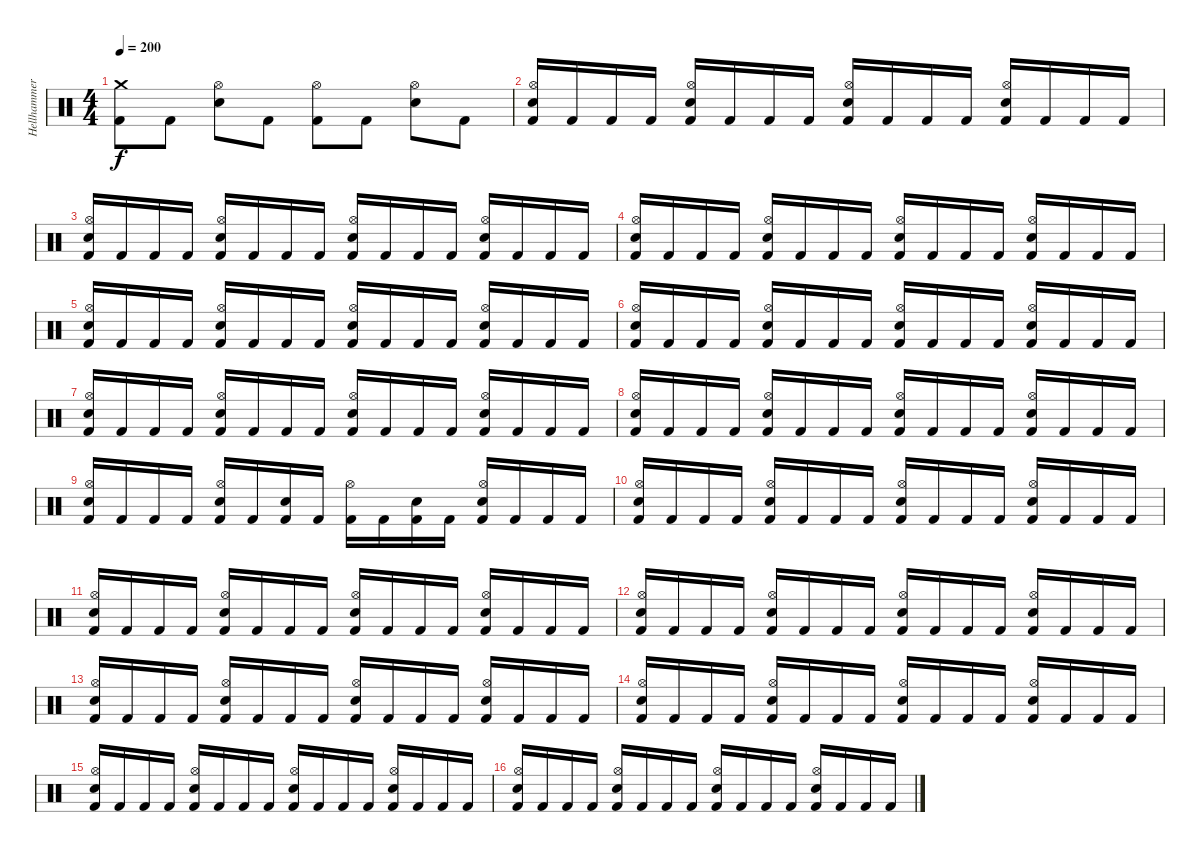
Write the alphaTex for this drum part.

\track ("Hellhammer" "Hellhammer") {instrument percussion}
\staff {score}
\articulation defaults
\ts (4 4)
\tempo 200
\clef neutral
\ks c
("Crash medium (hit)" "Kick (hit) 2").8{dy f} "Kick (hit) 2".8 ("Hi-Hat (open)" "Electric Snare (hit)").8 "Kick (hit) 2".8 ("Hi-Hat (open)" "Kick (hit) 2").8 "Kick (hit) 2".8 ("Hi-Hat (open)" "Electric Snare (hit)").8 "Kick (hit) 2".8 |
("Hi-Hat (open)" "Electric Snare (hit)" "Kick (hit) 2").16 "Kick (hit) 2".16 "Kick (hit) 2".16 "Kick (hit) 2".16 ("Hi-Hat (open)" "Electric Snare (hit)" "Kick (hit) 2").16 "Kick (hit) 2".16 "Kick (hit) 2".16 "Kick (hit) 2".16 ("Hi-Hat (open)" "Electric Snare (hit)" "Kick (hit) 2").16 "Kick (hit) 2".16 "Kick (hit) 2".16 "Kick (hit) 2".16 ("Hi-Hat (open)" "Electric Snare (hit)" "Kick (hit) 2").16 "Kick (hit) 2".16 "Kick (hit) 2".16 "Kick (hit) 2".16 |
("Hi-Hat (open)" "Electric Snare (hit)" "Kick (hit) 2").16 "Kick (hit) 2".16 "Kick (hit) 2".16 "Kick (hit) 2".16 ("Hi-Hat (open)" "Electric Snare (hit)" "Kick (hit) 2").16 "Kick (hit) 2".16 "Kick (hit) 2".16 "Kick (hit) 2".16 ("Hi-Hat (open)" "Electric Snare (hit)" "Kick (hit) 2").16 "Kick (hit) 2".16 "Kick (hit) 2".16 "Kick (hit) 2".16 ("Hi-Hat (open)" "Electric Snare (hit)" "Kick (hit) 2").16 "Kick (hit) 2".16 "Kick (hit) 2".16 "Kick (hit) 2".16 |
("Hi-Hat (open)" "Electric Snare (hit)" "Kick (hit) 2").16 "Kick (hit) 2".16 "Kick (hit) 2".16 "Kick (hit) 2".16 ("Hi-Hat (open)" "Electric Snare (hit)" "Kick (hit) 2").16 "Kick (hit) 2".16 "Kick (hit) 2".16 "Kick (hit) 2".16 ("Hi-Hat (open)" "Electric Snare (hit)" "Kick (hit) 2").16 "Kick (hit) 2".16 "Kick (hit) 2".16 "Kick (hit) 2".16 ("Hi-Hat (open)" "Electric Snare (hit)" "Kick (hit) 2").16 "Kick (hit) 2".16 "Kick (hit) 2".16 "Kick (hit) 2".16 |
("Hi-Hat (open)" "Electric Snare (hit)" "Kick (hit) 2").16 "Kick (hit) 2".16 "Kick (hit) 2".16 "Kick (hit) 2".16 ("Hi-Hat (open)" "Electric Snare (hit)" "Kick (hit) 2").16 "Kick (hit) 2".16 "Kick (hit) 2".16 "Kick (hit) 2".16 ("Hi-Hat (open)" "Electric Snare (hit)" "Kick (hit) 2").16 "Kick (hit) 2".16 "Kick (hit) 2".16 "Kick (hit) 2".16 ("Hi-Hat (open)" "Electric Snare (hit)" "Kick (hit) 2").16 "Kick (hit) 2".16 "Kick (hit) 2".16 "Kick (hit) 2".16 |
("Hi-Hat (open)" "Electric Snare (hit)" "Kick (hit) 2").16 "Kick (hit) 2".16 "Kick (hit) 2".16 "Kick (hit) 2".16 ("Hi-Hat (open)" "Electric Snare (hit)" "Kick (hit) 2").16 "Kick (hit) 2".16 "Kick (hit) 2".16 "Kick (hit) 2".16 ("Hi-Hat (open)" "Electric Snare (hit)" "Kick (hit) 2").16 "Kick (hit) 2".16 "Kick (hit) 2".16 "Kick (hit) 2".16 ("Hi-Hat (open)" "Electric Snare (hit)" "Kick (hit) 2").16 "Kick (hit) 2".16 "Kick (hit) 2".16 "Kick (hit) 2".16 |
("Hi-Hat (open)" "Electric Snare (hit)" "Kick (hit) 2").16 "Kick (hit) 2".16 "Kick (hit) 2".16 "Kick (hit) 2".16 ("Hi-Hat (open)" "Electric Snare (hit)" "Kick (hit) 2").16 "Kick (hit) 2".16 "Kick (hit) 2".16 "Kick (hit) 2".16 ("Hi-Hat (open)" "Electric Snare (hit)" "Kick (hit) 2").16 "Kick (hit) 2".16 "Kick (hit) 2".16 "Kick (hit) 2".16 ("Hi-Hat (open)" "Electric Snare (hit)" "Kick (hit) 2").16 "Kick (hit) 2".16 "Kick (hit) 2".16 "Kick (hit) 2".16 |
("Hi-Hat (open)" "Electric Snare (hit)" "Kick (hit) 2").16 "Kick (hit) 2".16 "Kick (hit) 2".16 "Kick (hit) 2".16 ("Hi-Hat (open)" "Electric Snare (hit)" "Kick (hit) 2").16 "Kick (hit) 2".16 "Kick (hit) 2".16 "Kick (hit) 2".16 ("Hi-Hat (open)" "Electric Snare (hit)" "Kick (hit) 2").16 "Kick (hit) 2".16 "Kick (hit) 2".16 "Kick (hit) 2".16 ("Hi-Hat (open)" "Electric Snare (hit)" "Kick (hit) 2").16 "Kick (hit) 2".16 "Kick (hit) 2".16 "Kick (hit) 2".16 |
("Hi-Hat (open)" "Electric Snare (hit)" "Kick (hit) 2").16 "Kick (hit) 2".16 "Kick (hit) 2".16 "Kick (hit) 2".16 ("Hi-Hat (open)" "Electric Snare (hit)" "Kick (hit) 2").16 "Kick (hit) 2".16 ("Electric Snare (hit)" "Kick (hit) 2").16 "Kick (hit) 2".16 ("Hi-Hat (open)" "Kick (hit) 2").16 "Kick (hit) 2".16 ("Electric Snare (hit)" "Kick (hit) 2").16 "Kick (hit) 2".16 ("Hi-Hat (open)" "Electric Snare (hit)" "Kick (hit) 2").16 "Kick (hit) 2".16 "Kick (hit) 2".16 "Kick (hit) 2".16 |
("Hi-Hat (open)" "Electric Snare (hit)" "Kick (hit) 2").16 "Kick (hit) 2".16 "Kick (hit) 2".16 "Kick (hit) 2".16 ("Hi-Hat (open)" "Electric Snare (hit)" "Kick (hit) 2").16 "Kick (hit) 2".16 "Kick (hit) 2".16 "Kick (hit) 2".16 ("Hi-Hat (open)" "Electric Snare (hit)" "Kick (hit) 2").16 "Kick (hit) 2".16 "Kick (hit) 2".16 "Kick (hit) 2".16 ("Hi-Hat (open)" "Electric Snare (hit)" "Kick (hit) 2").16 "Kick (hit) 2".16 "Kick (hit) 2".16 "Kick (hit) 2".16 |
("Hi-Hat (open)" "Electric Snare (hit)" "Kick (hit) 2").16 "Kick (hit) 2".16 "Kick (hit) 2".16 "Kick (hit) 2".16 ("Hi-Hat (open)" "Electric Snare (hit)" "Kick (hit) 2").16 "Kick (hit) 2".16 "Kick (hit) 2".16 "Kick (hit) 2".16 ("Hi-Hat (open)" "Electric Snare (hit)" "Kick (hit) 2").16 "Kick (hit) 2".16 "Kick (hit) 2".16 "Kick (hit) 2".16 ("Hi-Hat (open)" "Electric Snare (hit)" "Kick (hit) 2").16 "Kick (hit) 2".16 "Kick (hit) 2".16 "Kick (hit) 2".16 |
("Hi-Hat (open)" "Electric Snare (hit)" "Kick (hit) 2").16 "Kick (hit) 2".16 "Kick (hit) 2".16 "Kick (hit) 2".16 ("Hi-Hat (open)" "Electric Snare (hit)" "Kick (hit) 2").16 "Kick (hit) 2".16 "Kick (hit) 2".16 "Kick (hit) 2".16 ("Hi-Hat (open)" "Electric Snare (hit)" "Kick (hit) 2").16 "Kick (hit) 2".16 "Kick (hit) 2".16 "Kick (hit) 2".16 ("Hi-Hat (open)" "Electric Snare (hit)" "Kick (hit) 2").16 "Kick (hit) 2".16 "Kick (hit) 2".16 "Kick (hit) 2".16 |
("Hi-Hat (open)" "Electric Snare (hit)" "Kick (hit) 2").16 "Kick (hit) 2".16 "Kick (hit) 2".16 "Kick (hit) 2".16 ("Hi-Hat (open)" "Electric Snare (hit)" "Kick (hit) 2").16 "Kick (hit) 2".16 "Kick (hit) 2".16 "Kick (hit) 2".16 ("Hi-Hat (open)" "Electric Snare (hit)" "Kick (hit) 2").16 "Kick (hit) 2".16 "Kick (hit) 2".16 "Kick (hit) 2".16 ("Hi-Hat (open)" "Electric Snare (hit)" "Kick (hit) 2").16 "Kick (hit) 2".16 "Kick (hit) 2".16 "Kick (hit) 2".16 |
("Hi-Hat (open)" "Electric Snare (hit)" "Kick (hit) 2").16 "Kick (hit) 2".16 "Kick (hit) 2".16 "Kick (hit) 2".16 ("Hi-Hat (open)" "Electric Snare (hit)" "Kick (hit) 2").16 "Kick (hit) 2".16 "Kick (hit) 2".16 "Kick (hit) 2".16 ("Hi-Hat (open)" "Electric Snare (hit)" "Kick (hit) 2").16 "Kick (hit) 2".16 "Kick (hit) 2".16 "Kick (hit) 2".16 ("Hi-Hat (open)" "Electric Snare (hit)" "Kick (hit) 2").16 "Kick (hit) 2".16 "Kick (hit) 2".16 "Kick (hit) 2".16 |
("Hi-Hat (open)" "Electric Snare (hit)" "Kick (hit) 2").16 "Kick (hit) 2".16 "Kick (hit) 2".16 "Kick (hit) 2".16 ("Hi-Hat (open)" "Electric Snare (hit)" "Kick (hit) 2").16 "Kick (hit) 2".16 "Kick (hit) 2".16 "Kick (hit) 2".16 ("Hi-Hat (open)" "Electric Snare (hit)" "Kick (hit) 2").16 "Kick (hit) 2".16 "Kick (hit) 2".16 "Kick (hit) 2".16 ("Hi-Hat (open)" "Electric Snare (hit)" "Kick (hit) 2").16 "Kick (hit) 2".16 "Kick (hit) 2".16 "Kick (hit) 2".16 |
("Hi-Hat (open)" "Electric Snare (hit)" "Kick (hit) 2").16 "Kick (hit) 2".16 "Kick (hit) 2".16 "Kick (hit) 2".16 ("Hi-Hat (open)" "Electric Snare (hit)" "Kick (hit) 2").16 "Kick (hit) 2".16 "Kick (hit) 2".16 "Kick (hit) 2".16 ("Hi-Hat (open)" "Electric Snare (hit)" "Kick (hit) 2").16 "Kick (hit) 2".16 "Kick (hit) 2".16 "Kick (hit) 2".16 ("Hi-Hat (open)" "Electric Snare (hit)" "Kick (hit) 2").16 "Kick (hit) 2".16 "Kick (hit) 2".16 "Kick (hit) 2".16
